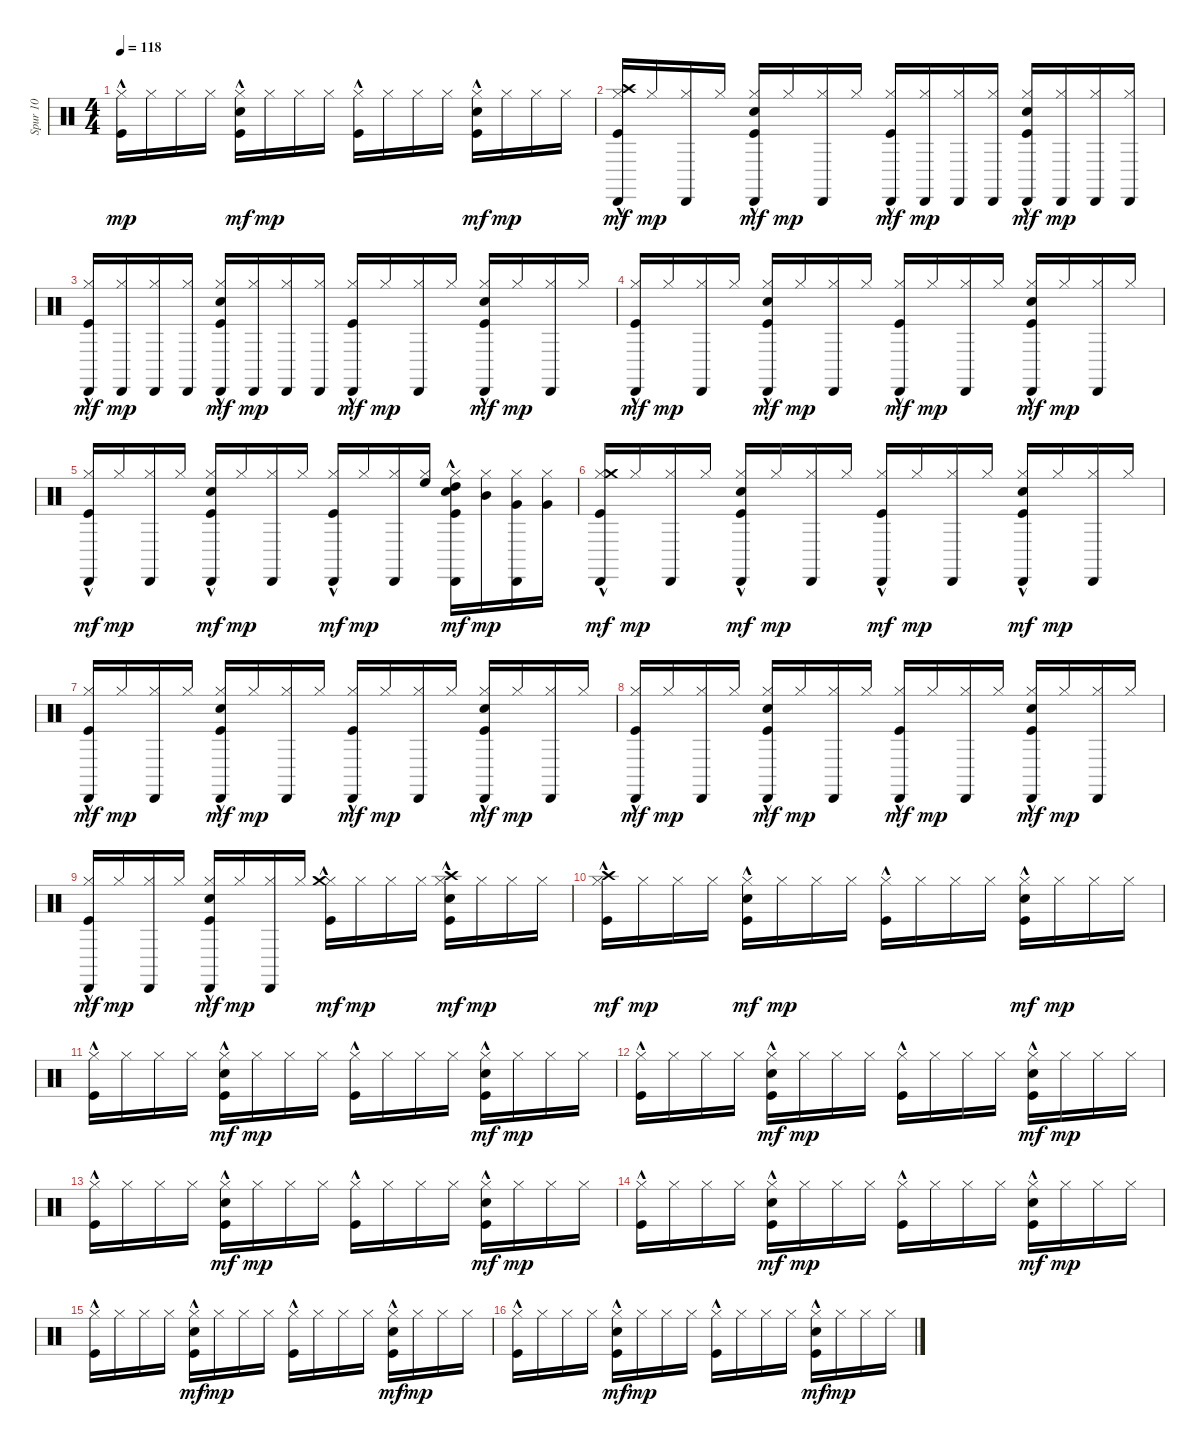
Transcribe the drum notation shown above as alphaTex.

\track ("Spur 10" "Spur 10") {instrument percussion}
\staff {score}
\articulation defaults
\ts (4 4)
\tempo 118
\clef neutral
\ks c
("Hi-Hat (closed)" "Kick (hit)"{hac}).16{dy mp} "Hi-Hat (closed)".16 "Hi-Hat (closed)".16 "Hi-Hat (closed)".16 ("Hi-Hat (closed)" "Kick (hit)"{hac} "Electric Snare (hit)").16{dy mf} "Hi-Hat (closed)".16{dy mp} "Hi-Hat (closed)".16 "Hi-Hat (closed)".16 ("Hi-Hat (closed)" "Kick (hit)"{hac}).16 "Hi-Hat (closed)".16 "Hi-Hat (closed)".16 "Hi-Hat (closed)".16 ("Hi-Hat (closed)" "Kick (hit)"{hac} "Electric Snare (hit)").16{dy mf} "Hi-Hat (closed)".16{dy mp} "Hi-Hat (closed)".16 "Hi-Hat (closed)".16 |
("Hi-Hat (closed)" "Kick (hit)"{hac} "Crash high (hit)"{hac} "Cabasa (hit)").16{dy mf} "Hi-Hat (closed)".16{dy mp} ("Hi-Hat (closed)" "Cabasa (hit)").16 "Hi-Hat (closed)".16 ("Hi-Hat (closed)" "Kick (hit)"{hac} "Electric Snare (hit)" "Cabasa (hit)").16{dy mf} "Hi-Hat (closed)".16{dy mp} ("Hi-Hat (closed)" "Cabasa (hit)").16 "Hi-Hat (closed)".16 ("Hi-Hat (closed)" "Kick (hit)"{hac} "Cabasa (hit)").16{dy mf} ("Hi-Hat (closed)" "Cabasa (hit)").16{dy mp} ("Hi-Hat (closed)" "Cabasa (hit)").16 ("Hi-Hat (closed)" "Cabasa (hit)").16 ("Hi-Hat (closed)" "Kick (hit)"{hac} "Electric Snare (hit)" "Cabasa (hit)").16{dy mf} ("Hi-Hat (closed)" "Cabasa (hit)").16{dy mp} ("Hi-Hat (closed)" "Cabasa (hit)").16 ("Hi-Hat (closed)" "Cabasa (hit)").16 |
("Hi-Hat (closed)" "Kick (hit)"{hac} "Cabasa (hit)").16{dy mf} ("Hi-Hat (closed)" "Cabasa (hit)").16{dy mp} ("Hi-Hat (closed)" "Cabasa (hit)").16 ("Hi-Hat (closed)" "Cabasa (hit)").16 ("Hi-Hat (closed)" "Kick (hit)"{hac} "Electric Snare (hit)" "Cabasa (hit)").16{dy mf} ("Hi-Hat (closed)" "Cabasa (hit)").16{dy mp} ("Hi-Hat (closed)" "Cabasa (hit)").16 ("Hi-Hat (closed)" "Cabasa (hit)").16 ("Hi-Hat (closed)" "Kick (hit)"{hac} "Cabasa (hit)").16{dy mf} "Hi-Hat (closed)".16{dy mp} ("Hi-Hat (closed)" "Cabasa (hit)").16 "Hi-Hat (closed)".16 ("Hi-Hat (closed)" "Kick (hit)"{hac} "Electric Snare (hit)" "Cabasa (hit)").16{dy mf} "Hi-Hat (closed)".16{dy mp} ("Hi-Hat (closed)" "Cabasa (hit)").16 "Hi-Hat (closed)".16 |
("Hi-Hat (closed)" "Kick (hit)"{hac} "Cabasa (hit)").16{dy mf} "Hi-Hat (closed)".16{dy mp} ("Hi-Hat (closed)" "Cabasa (hit)").16 "Hi-Hat (closed)".16 ("Hi-Hat (closed)" "Kick (hit)"{hac} "Electric Snare (hit)" "Cabasa (hit)").16{dy mf} "Hi-Hat (closed)".16{dy mp} ("Hi-Hat (closed)" "Cabasa (hit)").16 "Hi-Hat (closed)".16 ("Hi-Hat (closed)" "Kick (hit)"{hac} "Cabasa (hit)").16{dy mf} "Hi-Hat (closed)".16{dy mp} ("Hi-Hat (closed)" "Cabasa (hit)").16 "Hi-Hat (closed)".16 ("Hi-Hat (closed)" "Kick (hit)"{hac} "Electric Snare (hit)" "Cabasa (hit)").16{dy mf} "Hi-Hat (closed)".16{dy mp} ("Hi-Hat (closed)" "Cabasa (hit)").16 "Hi-Hat (closed)".16 |
("Hi-Hat (closed)" "Kick (hit)"{hac} "Cabasa (hit)").16{dy mf} "Hi-Hat (closed)".16{dy mp} ("Hi-Hat (closed)" "Cabasa (hit)").16 "Hi-Hat (closed)".16 ("Hi-Hat (closed)" "Kick (hit)"{hac} "Electric Snare (hit)" "Cabasa (hit)").16{dy mf} "Hi-Hat (closed)".16{dy mp} ("Hi-Hat (closed)" "Cabasa (hit)").16 "Hi-Hat (closed)".16 ("Hi-Hat (closed)" "Kick (hit)"{hac} "Cabasa (hit)").16{dy mf} "Hi-Hat (closed)".16{dy mp} ("Hi-Hat (closed)" "Cabasa (hit)").16 ("High Floor Tom (hit)" "Hi-Hat (closed)").16 ("High Tom (hit)" "Hi-Hat (closed)" "Kick (hit)"{hac} "Electric Snare (hit)" "Cabasa (hit)").16{dy mf} ("Mid Tom (hit)" "Hi-Hat (closed)").16{dy mp} ("Very Low Tom (hit)" "Hi-Hat (closed)" "Cabasa (hit)").16 ("Very Low Tom (hit)" "Hi-Hat (closed)").16 |
("Hi-Hat (closed)" "Kick (hit)"{hac} "Crash medium (hit)"{hac} "Cabasa (hit)").16{dy mf} "Hi-Hat (closed)".16{dy mp} ("Hi-Hat (closed)" "Cabasa (hit)").16 "Hi-Hat (closed)".16 ("Hi-Hat (closed)" "Kick (hit)"{hac} "Electric Snare (hit)" "Cabasa (hit)").16{dy mf} "Hi-Hat (closed)".16{dy mp} ("Hi-Hat (closed)" "Cabasa (hit)").16 "Hi-Hat (closed)".16 ("Hi-Hat (closed)" "Kick (hit)"{hac} "Cabasa (hit)").16{dy mf} "Hi-Hat (closed)".16{dy mp} ("Hi-Hat (closed)" "Cabasa (hit)").16 "Hi-Hat (closed)".16 ("Hi-Hat (closed)" "Kick (hit)"{hac} "Electric Snare (hit)" "Cabasa (hit)").16{dy mf} "Hi-Hat (closed)".16{dy mp} ("Hi-Hat (closed)" "Cabasa (hit)").16 "Hi-Hat (closed)".16 |
("Hi-Hat (closed)" "Kick (hit)"{hac} "Cabasa (hit)").16{dy mf} "Hi-Hat (closed)".16{dy mp} ("Hi-Hat (closed)" "Cabasa (hit)").16 "Hi-Hat (closed)".16 ("Hi-Hat (closed)" "Kick (hit)"{hac} "Electric Snare (hit)" "Cabasa (hit)").16{dy mf} "Hi-Hat (closed)".16{dy mp} ("Hi-Hat (closed)" "Cabasa (hit)").16 "Hi-Hat (closed)".16 ("Hi-Hat (closed)" "Kick (hit)"{hac} "Cabasa (hit)").16{dy mf} "Hi-Hat (closed)".16{dy mp} ("Hi-Hat (closed)" "Cabasa (hit)").16 "Hi-Hat (closed)".16 ("Hi-Hat (closed)" "Kick (hit)"{hac} "Electric Snare (hit)" "Cabasa (hit)").16{dy mf} "Hi-Hat (closed)".16{dy mp} ("Hi-Hat (closed)" "Cabasa (hit)").16 "Hi-Hat (closed)".16 |
("Hi-Hat (closed)" "Kick (hit)"{hac} "Cabasa (hit)").16{dy mf} "Hi-Hat (closed)".16{dy mp} ("Hi-Hat (closed)" "Cabasa (hit)").16 "Hi-Hat (closed)".16 ("Hi-Hat (closed)" "Kick (hit)"{hac} "Electric Snare (hit)" "Cabasa (hit)").16{dy mf} "Hi-Hat (closed)".16{dy mp} ("Hi-Hat (closed)" "Cabasa (hit)").16 "Hi-Hat (closed)".16 ("Hi-Hat (closed)" "Kick (hit)"{hac} "Cabasa (hit)").16{dy mf} "Hi-Hat (closed)".16{dy mp} ("Hi-Hat (closed)" "Cabasa (hit)").16 "Hi-Hat (closed)".16 ("Hi-Hat (closed)" "Kick (hit)"{hac} "Electric Snare (hit)" "Cabasa (hit)").16{dy mf} "Hi-Hat (closed)".16{dy mp} ("Hi-Hat (closed)" "Cabasa (hit)").16 "Hi-Hat (closed)".16 |
("Hi-Hat (closed)" "Kick (hit)"{hac} "Cabasa (hit)").16{dy mf} "Hi-Hat (closed)".16{dy mp} ("Hi-Hat (closed)" "Cabasa (hit)").16 "Hi-Hat (closed)".16 ("Hi-Hat (closed)" "Kick (hit)"{hac} "Electric Snare (hit)" "Cabasa (hit)").16{dy mf} "Hi-Hat (closed)".16{dy mp} ("Hi-Hat (closed)" "Cabasa (hit)").16 "Hi-Hat (closed)".16 ("Hi-Hat (closed)" "Kick (hit)"{hac} "Crash medium (hit)"{hac}).16{dy mf} "Hi-Hat (closed)".16{dy mp} "Hi-Hat (closed)".16 "Hi-Hat (closed)".16 ("Hi-Hat (closed)" "Kick (hit)"{hac} "Electric Snare (hit)" "Crash high (hit)"{hac}).16{dy mf} "Hi-Hat (closed)".16{dy mp} "Hi-Hat (closed)".16 "Hi-Hat (closed)".16 |
("Hi-Hat (closed)" "Kick (hit)"{hac} "Crash high (hit)"{hac}).16{dy mf} "Hi-Hat (closed)".16{dy mp} "Hi-Hat (closed)".16 "Hi-Hat (closed)".16 ("Hi-Hat (closed)" "Kick (hit)"{hac} "Electric Snare (hit)").16{dy mf} "Hi-Hat (closed)".16{dy mp} "Hi-Hat (closed)".16 "Hi-Hat (closed)".16 ("Hi-Hat (closed)" "Kick (hit)"{hac}).16 "Hi-Hat (closed)".16 "Hi-Hat (closed)".16 "Hi-Hat (closed)".16 ("Hi-Hat (closed)" "Kick (hit)"{hac} "Electric Snare (hit)").16{dy mf} "Hi-Hat (closed)".16{dy mp} "Hi-Hat (closed)".16 "Hi-Hat (closed)".16 |
("Hi-Hat (closed)" "Kick (hit)"{hac}).16 "Hi-Hat (closed)".16 "Hi-Hat (closed)".16 "Hi-Hat (closed)".16 ("Hi-Hat (closed)" "Kick (hit)"{hac} "Electric Snare (hit)").16{dy mf} "Hi-Hat (closed)".16{dy mp} "Hi-Hat (closed)".16 "Hi-Hat (closed)".16 ("Hi-Hat (closed)" "Kick (hit)"{hac}).16 "Hi-Hat (closed)".16 "Hi-Hat (closed)".16 "Hi-Hat (closed)".16 ("Hi-Hat (closed)" "Kick (hit)"{hac} "Electric Snare (hit)").16{dy mf} "Hi-Hat (closed)".16{dy mp} "Hi-Hat (closed)".16 "Hi-Hat (closed)".16 |
("Hi-Hat (closed)" "Kick (hit)"{hac}).16 "Hi-Hat (closed)".16 "Hi-Hat (closed)".16 "Hi-Hat (closed)".16 ("Hi-Hat (closed)" "Kick (hit)"{hac} "Electric Snare (hit)").16{dy mf} "Hi-Hat (closed)".16{dy mp} "Hi-Hat (closed)".16 "Hi-Hat (closed)".16 ("Hi-Hat (closed)" "Kick (hit)"{hac}).16 "Hi-Hat (closed)".16 "Hi-Hat (closed)".16 "Hi-Hat (closed)".16 ("Hi-Hat (closed)" "Kick (hit)"{hac} "Electric Snare (hit)").16{dy mf} "Hi-Hat (closed)".16{dy mp} "Hi-Hat (closed)".16 "Hi-Hat (closed)".16 |
("Hi-Hat (closed)" "Kick (hit)"{hac}).16 "Hi-Hat (closed)".16 "Hi-Hat (closed)".16 "Hi-Hat (closed)".16 ("Hi-Hat (closed)" "Kick (hit)"{hac} "Electric Snare (hit)").16{dy mf} "Hi-Hat (closed)".16{dy mp} "Hi-Hat (closed)".16 "Hi-Hat (closed)".16 ("Hi-Hat (closed)" "Kick (hit)"{hac}).16 "Hi-Hat (closed)".16 "Hi-Hat (closed)".16 "Hi-Hat (closed)".16 ("Hi-Hat (closed)" "Kick (hit)"{hac} "Electric Snare (hit)").16{dy mf} "Hi-Hat (closed)".16{dy mp} "Hi-Hat (closed)".16 "Hi-Hat (closed)".16 |
("Hi-Hat (closed)" "Kick (hit)"{hac}).16 "Hi-Hat (closed)".16 "Hi-Hat (closed)".16 "Hi-Hat (closed)".16 ("Hi-Hat (closed)" "Kick (hit)"{hac} "Electric Snare (hit)").16{dy mf} "Hi-Hat (closed)".16{dy mp} "Hi-Hat (closed)".16 "Hi-Hat (closed)".16 ("Hi-Hat (closed)" "Kick (hit)"{hac}).16 "Hi-Hat (closed)".16 "Hi-Hat (closed)".16 "Hi-Hat (closed)".16 ("Hi-Hat (closed)" "Kick (hit)"{hac} "Electric Snare (hit)").16{dy mf} "Hi-Hat (closed)".16{dy mp} "Hi-Hat (closed)".16 "Hi-Hat (closed)".16 |
("Hi-Hat (closed)" "Kick (hit)"{hac}).16 "Hi-Hat (closed)".16 "Hi-Hat (closed)".16 "Hi-Hat (closed)".16 ("Hi-Hat (closed)" "Kick (hit)"{hac} "Electric Snare (hit)").16{dy mf} "Hi-Hat (closed)".16{dy mp} "Hi-Hat (closed)".16 "Hi-Hat (closed)".16 ("Hi-Hat (closed)" "Kick (hit)"{hac}).16 "Hi-Hat (closed)".16 "Hi-Hat (closed)".16 "Hi-Hat (closed)".16 ("Hi-Hat (closed)" "Kick (hit)"{hac} "Electric Snare (hit)").16{dy mf} "Hi-Hat (closed)".16{dy mp} "Hi-Hat (closed)".16 "Hi-Hat (closed)".16 |
("Hi-Hat (closed)" "Kick (hit)"{hac}).16 "Hi-Hat (closed)".16 "Hi-Hat (closed)".16 "Hi-Hat (closed)".16 ("Hi-Hat (closed)" "Kick (hit)"{hac} "Electric Snare (hit)").16{dy mf} "Hi-Hat (closed)".16{dy mp} "Hi-Hat (closed)".16 "Hi-Hat (closed)".16 ("Hi-Hat (closed)" "Kick (hit)"{hac}).16 "Hi-Hat (closed)".16 "Hi-Hat (closed)".16 "Hi-Hat (closed)".16 ("Hi-Hat (closed)" "Kick (hit)"{hac} "Electric Snare (hit)").16{dy mf} "Hi-Hat (closed)".16{dy mp} "Hi-Hat (closed)".16 "Hi-Hat (closed)".16
